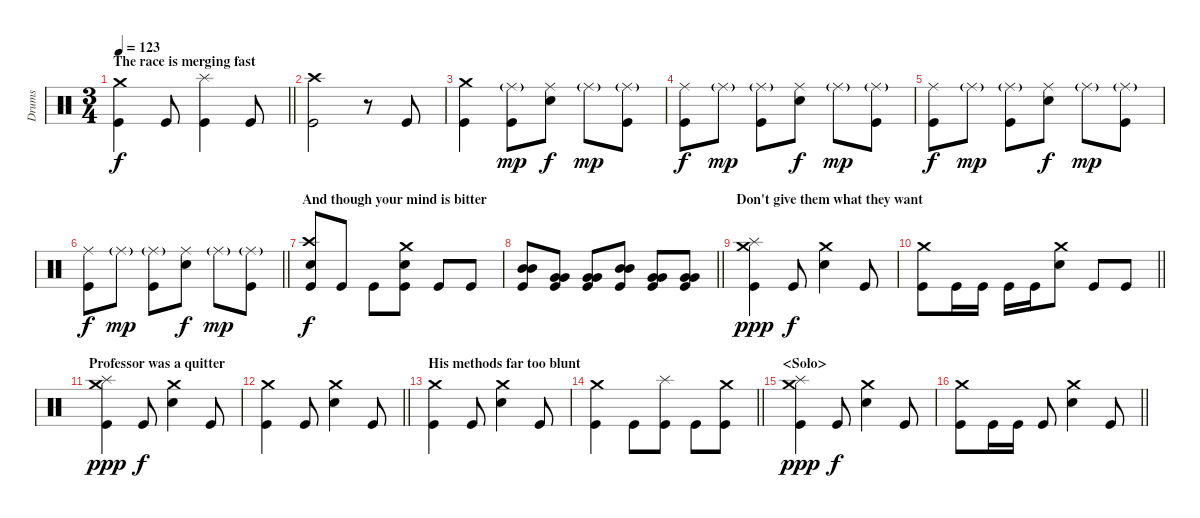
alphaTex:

\track ("Drums" "Drums") {instrument percussion}
\staff {score}
\articulation defaults
\ts (3 4)
\section ("" "The race is merging fast")
\tempo 123
\clef neutral
\barLineRight lightlight
\ks c
("Crash medium (hit)" "Kick (hit)").4{dy f} "Kick (hit)".8 ("Splash (hit)" "Kick (hit)").4 "Kick (hit)".8 |
("Crash high (hit)" "Kick (hit)").2 r.8 "Kick (hit)".8 |
("Crash medium (hit)" "Kick (hit)").4 ("Ride (middle)"{g} "Kick (hit)").8{dy mp} ("Ride (middle)" "Snare (hit) 2").8{dy f} "Ride (middle)"{g}.8{dy mp} ("Ride (middle)"{g} "Kick (hit)").8 |
("Ride (middle)" "Kick (hit)").8{dy f} "Ride (middle)"{g}.8{dy mp} ("Ride (middle)"{g} "Kick (hit)").8 ("Ride (middle)" "Snare (hit) 2").8{dy f} "Ride (middle)"{g}.8{dy mp} ("Ride (middle)"{g} "Kick (hit)").8 |
("Ride (middle)" "Kick (hit)").8{dy f} "Ride (middle)"{g}.8{dy mp} ("Ride (middle)"{g} "Kick (hit)").8 ("Ride (middle)" "Snare (hit) 2").8{dy f} "Ride (middle)"{g}.8{dy mp} ("Ride (middle)"{g} "Kick (hit)").8 |
\barLineRight lightlight
("Ride (middle)" "Kick (hit)").8{dy f} "Ride (middle)"{g}.8{dy mp} ("Ride (middle)"{g} "Kick (hit)").8 ("Ride (middle)" "Snare (hit) 2").8{dy f} "Ride (middle)"{g}.8{dy mp} ("Ride (middle)"{g} "Kick (hit)").8 |
\section ("" "And though your mind is bitter")
("Crash high (hit)" "Snare (hit) 2" "Kick (hit)").8{dy f} "Kick (hit)".8 "Kick (hit)".8 ("Crash medium (hit)" "Snare (hit) 2" "Kick (hit)").8 "Kick (hit)".8 "Kick (hit)".8 |
\barLineRight lightlight
("Mid Tom (hit)" "Mid Tom (hit)" "Kick (hit)").8 ("Very Low Tom (hit)" "Very Low Tom (hit)" "Kick (hit)").8 ("Very Low Tom (hit)" "Very Low Tom (hit)" "Kick (hit)").8 ("Mid Tom (hit)" "Mid Tom (hit)" "Kick (hit)").8 ("Very Low Tom (hit)" "Very Low Tom (hit)" "Kick (hit)").8 ("Very Low Tom (hit)" "Very Low Tom (hit)" "Kick (hit)").8 |
\section ("" "Don't give them what they want")
("Crash medium (hit)" "Splash (hit)" "Kick (hit)").4{dy ppp} "Kick (hit)".8{dy f} ("Crash medium (hit)" "Snare (hit) 2").4 "Kick (hit)".8 |
\barLineRight lightlight
("Crash medium (hit)" "Kick (hit)").8 "Kick (hit)".16 "Kick (hit)".16 "Kick (hit)".16 "Kick (hit)".16 ("Crash medium (hit)" "Snare (hit) 2").8 "Kick (hit)".8 "Kick (hit)".8 |
\section ("" "Professor was a quitter")
("Crash medium (hit)" "Splash (hit)" "Kick (hit)").4{dy ppp} "Kick (hit)".8{dy f} ("Crash medium (hit)" "Snare (hit) 2").4 "Kick (hit)".8 |
\barLineRight lightlight
("Crash medium (hit)" "Kick (hit)").4 "Kick (hit)".8 ("Crash medium (hit)" "Snare (hit) 2").4 "Kick (hit)".8 |
\section ("" "His methods far too blunt ")
("Crash medium (hit)" "Kick (hit)").4 "Kick (hit)".8 ("Crash medium (hit)" "Snare (hit) 2").4 "Kick (hit)".8 |
\barLineRight lightlight
("Crash medium (hit)" "Kick (hit)").4 "Kick (hit)".8 ("Splash (hit)" "Kick (hit)").8 "Kick (hit)".8 ("Crash medium (hit)" "Kick (hit)").8 |
\section ("" "<Solo>")
("Crash medium (hit)" "Splash (hit)" "Kick (hit)").4{dy ppp} "Kick (hit)".8{dy f} ("Crash medium (hit)" "Snare (hit) 2").4 "Kick (hit)".8 |
\barLineRight lightlight
("Crash medium (hit)" "Kick (hit)").8 "Kick (hit)".16 "Kick (hit)".16 "Kick (hit)".8 ("Crash medium (hit)" "Snare (hit) 2").4 "Kick (hit)".8
